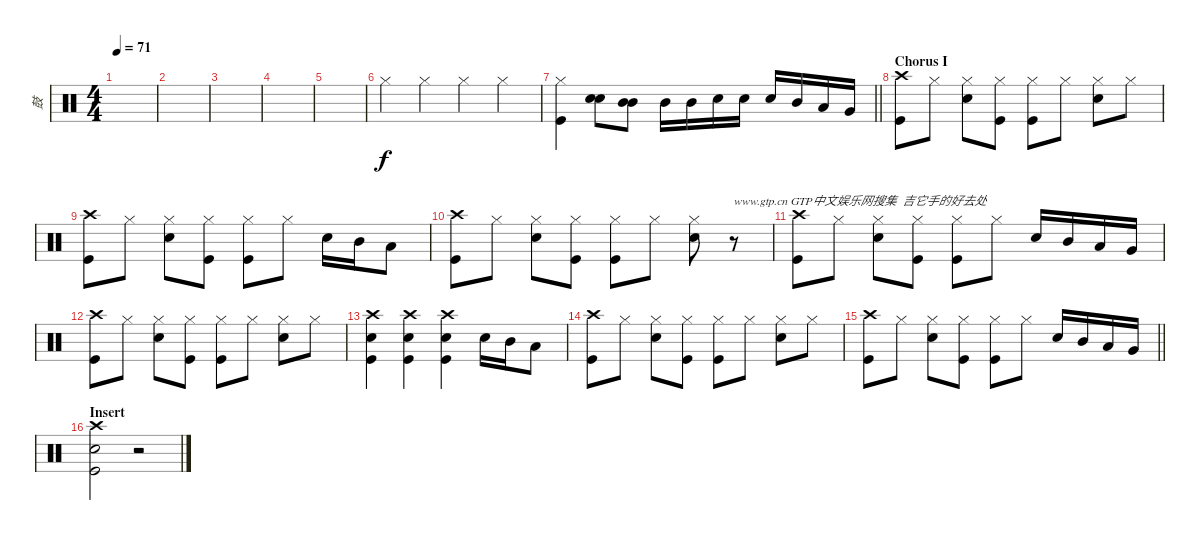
\track ("鼓" "鼓") {instrument percussion}
\staff {score}
\articulation defaults
\ts (4 4)
\tempo 71
\clef neutral
\ks c
|
|
|
|
|
"Hi-Hat (closed)".4 "Hi-Hat (closed)".4 "Hi-Hat (closed)".4 "Hi-Hat (closed)".4 |
\barLineRight lightlight
("Hi-Hat (closed)" "Kick (hit)").4 ("Electric Snare (hit)" "Electric Snare (hit)").8 ("Mid Tom (hit)" "Mid Tom (hit)").8 "Mid Tom (hit)".16 "Mid Tom (hit)".16 "Electric Snare (hit)".16 "Electric Snare (hit)".16 "Electric Snare (hit)".16 "Mid Tom (hit)".16 "Low Tom (hit)".16 "Very Low Tom (hit)".16 |
\section ("" "Chorus I")
("Crash high (hit)" "Kick (hit)").8 "Hi-Hat (closed)".8 ("Hi-Hat (closed)" "Electric Snare (hit)").8 ("Hi-Hat (closed)" "Kick (hit)").8 ("Hi-Hat (closed)" "Kick (hit)").8 "Hi-Hat (closed)".8 ("Hi-Hat (closed)" "Electric Snare (hit)").8 "Hi-Hat (closed)".8 |
("Crash high (hit)" "Kick (hit)").8 "Hi-Hat (closed)".8 ("Hi-Hat (closed)" "Electric Snare (hit)").8 ("Hi-Hat (closed)" "Kick (hit)").8 ("Hi-Hat (closed)" "Kick (hit)").8 "Hi-Hat (closed)".8 "Electric Snare (hit)".16 "Mid Tom (hit)".16 "Low Tom (hit)".8 |
("Crash high (hit)" "Kick (hit)").8 "Hi-Hat (closed)".8 ("Hi-Hat (closed)" "Electric Snare (hit)").8 ("Hi-Hat (closed)" "Kick (hit)").8 ("Hi-Hat (closed)" "Kick (hit)").8 "Hi-Hat (closed)".8 ("Hi-Hat (closed)" "Electric Snare (hit)").8 r.8{txt "www.gtp.cn GTP中文娱乐网搜集  吉它手的好去处"} |
("Crash high (hit)" "Kick (hit)").8 "Hi-Hat (closed)".8 ("Hi-Hat (closed)" "Electric Snare (hit)").8 ("Hi-Hat (closed)" "Kick (hit)").8 ("Hi-Hat (closed)" "Kick (hit)").8 "Hi-Hat (closed)".8 "Electric Snare (hit)".16 "Mid Tom (hit)".16 "Low Tom (hit)".16 "Very Low Tom (hit)".16 |
("Crash high (hit)" "Kick (hit)").8 "Hi-Hat (closed)".8 ("Hi-Hat (closed)" "Electric Snare (hit)").8 ("Hi-Hat (closed)" "Kick (hit)").8 ("Hi-Hat (closed)" "Kick (hit)").8 "Hi-Hat (closed)".8 ("Hi-Hat (closed)" "Electric Snare (hit)").8 "Hi-Hat (closed)".8 |
("Crash high (hit)" "Electric Snare (hit)" "Kick (hit)").4 ("Crash high (hit)" "Electric Snare (hit)" "Kick (hit)").4 ("Crash high (hit)" "Electric Snare (hit)" "Kick (hit)").4 "Electric Snare (hit)".16 "Mid Tom (hit)".16 "Low Tom (hit)".8 |
("Crash high (hit)" "Kick (hit)").8 "Hi-Hat (closed)".8 ("Hi-Hat (closed)" "Electric Snare (hit)").8 ("Hi-Hat (closed)" "Kick (hit)").8 ("Hi-Hat (closed)" "Kick (hit)").8 "Hi-Hat (closed)".8 ("Hi-Hat (closed)" "Electric Snare (hit)").8 "Hi-Hat (closed)".8 |
\barLineRight lightlight
("Crash high (hit)" "Kick (hit)").8 "Hi-Hat (closed)".8 ("Hi-Hat (closed)" "Electric Snare (hit)").8 ("Hi-Hat (closed)" "Kick (hit)").8 ("Hi-Hat (closed)" "Kick (hit)").8 "Hi-Hat (closed)".8 "Electric Snare (hit)".16 "Mid Tom (hit)".16 "Low Tom (hit)".16 "Very Low Tom (hit)".16 |
\section ("" "Insert")
("Crash high (hit)" "Electric Snare (hit)" "Kick (hit)").2 r.2
